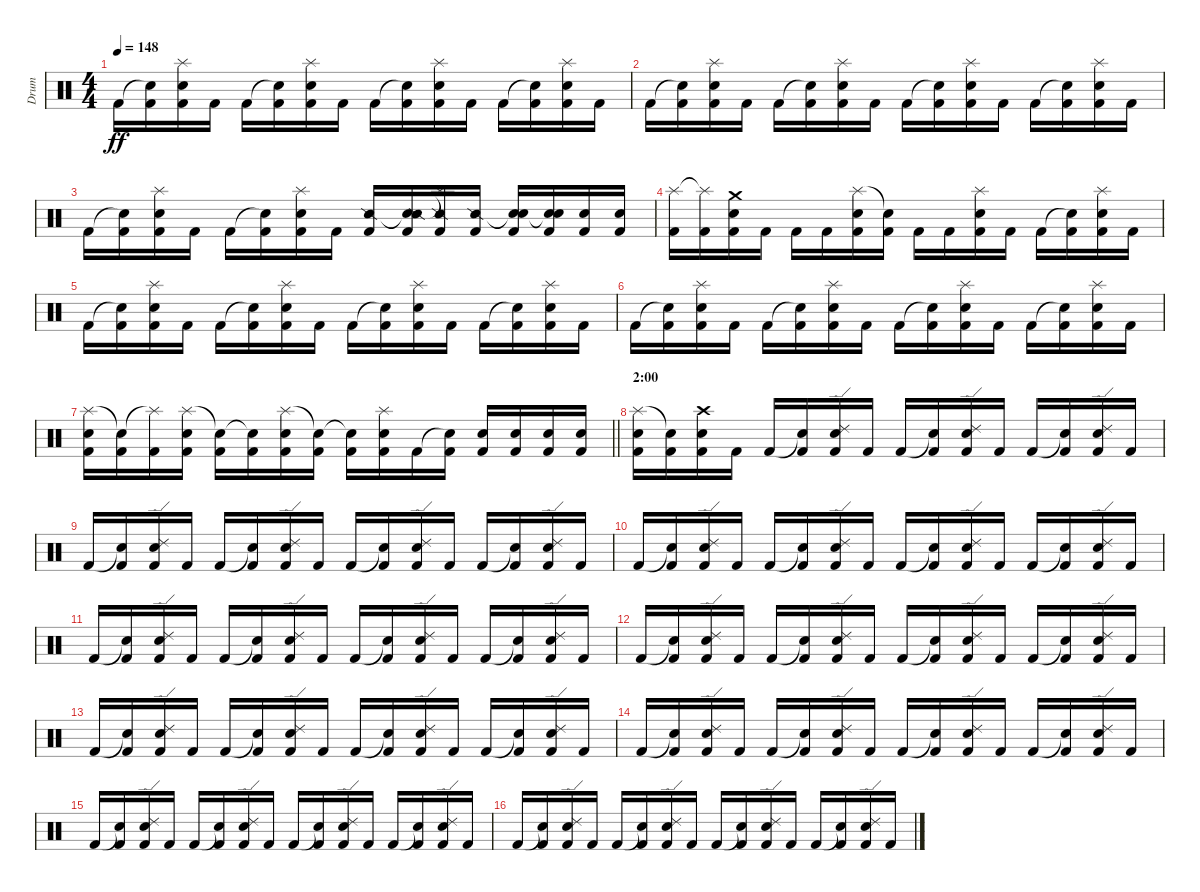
\track ("Drum" "Drum") {instrument percussion}
\staff {score}
\articulation defaults
\ts (4 4)
\tempo 148
\clef neutral
\ks c "Kick (hit) 2".16{dy ff}
("Snare (hit)"{t} "Kick (hit) 2").16 ("Splash (hit)" "Snare (hit) 2" "Kick (hit) 2").16 "Kick (hit) 2".16 "Kick (hit) 2".16 ("Snare (hit)"{t} "Kick (hit) 2").16 ("Splash (hit)" "Snare (hit) 2" "Kick (hit) 2").16 "Kick (hit) 2".16 "Kick (hit) 2".16 ("Snare (hit)"{t} "Kick (hit) 2").16 ("Splash (hit)" "Snare (hit) 2" "Kick (hit) 2").16 "Kick (hit) 2".16 "Kick (hit) 2".16 ("Snare (hit)"{t} "Kick (hit) 2").16 ("Splash (hit)" "Snare (hit) 2" "Kick (hit) 2").16 "Kick (hit) 2".16 |
"Kick (hit) 2".16 ("Snare (hit)"{t} "Kick (hit) 2").16 ("Splash (hit)" "Snare (hit) 2" "Kick (hit) 2").16 "Kick (hit) 2".16 "Kick (hit) 2".16 ("Snare (hit)"{t} "Kick (hit) 2").16 ("Splash (hit)" "Snare (hit) 2" "Kick (hit) 2").16 "Kick (hit) 2".16 "Kick (hit) 2".16 ("Snare (hit)"{t} "Kick (hit) 2").16 ("Splash (hit)" "Snare (hit) 2" "Kick (hit) 2").16 "Kick (hit) 2".16 "Kick (hit) 2".16 ("Snare (hit)"{t} "Kick (hit) 2").16 ("Splash (hit)" "Snare (hit) 2" "Kick (hit) 2").16 "Kick (hit) 2".16 |
"Kick (hit) 2".16 ("Snare (hit)"{t} "Kick (hit) 2").16 ("Splash (hit)" "Snare (hit) 2" "Kick (hit) 2").16 "Kick (hit) 2".16 "Kick (hit) 2".16 ("Snare (hit)"{t} "Kick (hit) 2").16 ("Splash (hit)" "Snare (hit) 2" "Kick (hit) 2").16 "Kick (hit) 2".16 ("Snare (side stick) 2" "Kick (hit) 2").16 ("Snare (hit)"{t} "Snare (side stick) 2" "Kick (hit) 2").16 ("Splash (hit)"{t} "Snare (side stick) 2" "Kick (hit) 2").16 ("Snare (side stick) 2" "Kick (hit) 2").16 ("Snare (hit)"{t} "Snare (hit) 2" "Kick (hit) 2").16 ("Snare (hit)"{t} "Snare (hit) 2" "Kick (hit) 2").16 ("Snare (hit) 2" "Kick (hit) 2").16 ("Snare (hit) 2" "Kick (hit) 2").16 |
("Splash (hit)" "Kick (hit) 2").16 ("Splash (hit)"{t} "Kick (hit) 2").16 ("Crash medium (hit)" "Snare (hit) 2" "Kick (hit) 2").16 "Kick (hit) 2".16 "Kick (hit) 2".16 "Kick (hit) 2".16 ("Splash (hit)" "Snare (hit) 2" "Kick (hit) 2").16 ("Snare (hit) 2"{t} "Kick (hit) 2").16 "Kick (hit) 2".16 "Kick (hit) 2".16 ("Splash (hit)" "Snare (hit) 2" "Kick (hit) 2").16 "Kick (hit) 2".16 "Kick (hit) 2".16 ("Snare (hit)"{t} "Kick (hit) 2").16 ("Splash (hit)" "Snare (hit) 2" "Kick (hit) 2").16 "Kick (hit) 2".16 |
"Kick (hit) 2".16 ("Snare (hit)"{t} "Kick (hit) 2").16 ("Splash (hit)" "Snare (hit) 2" "Kick (hit) 2").16 "Kick (hit) 2".16 "Kick (hit) 2".16 ("Snare (hit)"{t} "Kick (hit) 2").16 ("Splash (hit)" "Snare (hit) 2" "Kick (hit) 2").16 "Kick (hit) 2".16 "Kick (hit) 2".16 ("Snare (hit)"{t} "Kick (hit) 2").16 ("Splash (hit)" "Snare (hit) 2" "Kick (hit) 2").16 "Kick (hit) 2".16 "Kick (hit) 2".16 ("Snare (hit)"{t} "Kick (hit) 2").16 ("Splash (hit)" "Snare (hit) 2" "Kick (hit) 2").16 "Kick (hit) 2".16 |
"Kick (hit) 2".16 ("Snare (hit)"{t} "Kick (hit) 2").16 ("Splash (hit)" "Snare (hit) 2" "Kick (hit) 2").16 "Kick (hit) 2".16 "Kick (hit) 2".16 ("Snare (hit)"{t} "Kick (hit) 2").16 ("Splash (hit)" "Snare (hit) 2" "Kick (hit) 2").16 "Kick (hit) 2".16 "Kick (hit) 2".16 ("Snare (hit)"{t} "Kick (hit) 2").16 ("Splash (hit)" "Snare (hit) 2" "Kick (hit) 2").16 "Kick (hit) 2".16 "Kick (hit) 2".16 ("Snare (hit)"{t} "Kick (hit) 2").16 ("Splash (hit)" "Snare (hit) 2" "Kick (hit) 2").16 "Kick (hit) 2".16 |
\barLineRight lightlight
("Splash (hit)" "Snare (hit) 2" "Kick (hit) 2").16 ("Snare (hit)"{t} "Kick (hit) 2").16 ("Splash (hit)"{t} "Kick (hit) 2").16 ("Splash (hit)" "Snare (hit) 2" "Kick (hit) 2").16 ("Snare (hit)"{t} "Kick (hit) 2").16 ("Snare (hit)"{t} "Kick (hit) 2").16 ("Splash (hit)" "Snare (hit) 2" "Kick (hit) 2").16 ("Snare (hit)"{t} "Kick (hit) 2").16 ("Snare (hit)"{t} "Kick (hit) 2").16 ("Splash (hit)" "Snare (hit) 2" "Kick (hit) 2").16 "Kick (hit) 2".16 ("Snare (hit)"{t} "Kick (hit) 2").16 ("Snare (hit) 2" "Kick (hit) 2").16 ("Snare (hit) 2" "Kick (hit) 2").16 ("Snare (hit) 2" "Kick (hit) 2").16 ("Snare (hit) 2" "Kick (hit) 2").16 |
\section ("" "2:00")
("Splash (hit)" "Snare (hit) 2" "Kick (hit) 2").16 ("Snare (hit)"{t} "Kick (hit) 2").16 ("Crash high (hit)" "Snare (hit) 2" "Kick (hit) 2").16 "Kick (hit) 2".16 "Kick (hit) 2".16 ("Snare (hit)"{t} "Kick (hit) 2").16 ("Ride (edge) 2" "Snare (hit) 2" "Kick (hit) 2").16 "Kick (hit) 2".16 "Kick (hit) 2".16 ("Snare (hit)"{t} "Kick (hit) 2").16 ("Ride (edge) 2" "Snare (hit) 2" "Kick (hit) 2").16 "Kick (hit) 2".16 "Kick (hit) 2".16 ("Snare (hit)"{t} "Kick (hit) 2").16 ("Ride (edge) 2" "Snare (hit) 2" "Kick (hit) 2").16 "Kick (hit) 2".16 |
"Kick (hit) 2".16 ("Snare (hit)"{t} "Kick (hit) 2").16 ("Ride (edge) 2" "Snare (hit) 2" "Kick (hit) 2").16 "Kick (hit) 2".16 "Kick (hit) 2".16 ("Snare (hit)"{t} "Kick (hit) 2").16 ("Ride (edge) 2" "Snare (hit) 2" "Kick (hit) 2").16 "Kick (hit) 2".16 "Kick (hit) 2".16 ("Snare (hit)"{t} "Kick (hit) 2").16 ("Ride (edge) 2" "Snare (hit) 2" "Kick (hit) 2").16 "Kick (hit) 2".16 "Kick (hit) 2".16 ("Snare (hit)"{t} "Kick (hit) 2").16 ("Ride (edge) 2" "Snare (hit) 2" "Kick (hit) 2").16 "Kick (hit) 2".16 |
"Kick (hit) 2".16 ("Snare (hit)"{t} "Kick (hit) 2").16 ("Ride (edge) 2" "Snare (hit) 2" "Kick (hit) 2").16 "Kick (hit) 2".16 "Kick (hit) 2".16 ("Snare (hit)"{t} "Kick (hit) 2").16 ("Ride (edge) 2" "Snare (hit) 2" "Kick (hit) 2").16 "Kick (hit) 2".16 "Kick (hit) 2".16 ("Snare (hit)"{t} "Kick (hit) 2").16 ("Ride (edge) 2" "Snare (hit) 2" "Kick (hit) 2").16 "Kick (hit) 2".16 "Kick (hit) 2".16 ("Snare (hit)"{t} "Kick (hit) 2").16 ("Ride (edge) 2" "Snare (hit) 2" "Kick (hit) 2").16 "Kick (hit) 2".16 |
"Kick (hit) 2".16 ("Snare (hit)"{t} "Kick (hit) 2").16 ("Ride (edge) 2" "Snare (hit) 2" "Kick (hit) 2").16 "Kick (hit) 2".16 "Kick (hit) 2".16 ("Snare (hit)"{t} "Kick (hit) 2").16 ("Ride (edge) 2" "Snare (hit) 2" "Kick (hit) 2").16 "Kick (hit) 2".16 "Kick (hit) 2".16 ("Snare (hit)"{t} "Kick (hit) 2").16 ("Ride (edge) 2" "Snare (hit) 2" "Kick (hit) 2").16 "Kick (hit) 2".16 "Kick (hit) 2".16 ("Snare (hit)"{t} "Kick (hit) 2").16 ("Ride (edge) 2" "Snare (hit) 2" "Kick (hit) 2").16 "Kick (hit) 2".16 |
"Kick (hit) 2".16 ("Snare (hit)"{t} "Kick (hit) 2").16 ("Ride (edge) 2" "Snare (hit) 2" "Kick (hit) 2").16 "Kick (hit) 2".16 "Kick (hit) 2".16 ("Snare (hit)"{t} "Kick (hit) 2").16 ("Ride (edge) 2" "Snare (hit) 2" "Kick (hit) 2").16 "Kick (hit) 2".16 "Kick (hit) 2".16 ("Snare (hit)"{t} "Kick (hit) 2").16 ("Ride (edge) 2" "Snare (hit) 2" "Kick (hit) 2").16 "Kick (hit) 2".16 "Kick (hit) 2".16 ("Snare (hit)"{t} "Kick (hit) 2").16 ("Ride (edge) 2" "Snare (hit) 2" "Kick (hit) 2").16 "Kick (hit) 2".16 |
"Kick (hit) 2".16 ("Snare (hit)"{t} "Kick (hit) 2").16 ("Ride (edge) 2" "Snare (hit) 2" "Kick (hit) 2").16 "Kick (hit) 2".16 "Kick (hit) 2".16 ("Snare (hit)"{t} "Kick (hit) 2").16 ("Ride (edge) 2" "Snare (hit) 2" "Kick (hit) 2").16 "Kick (hit) 2".16 "Kick (hit) 2".16 ("Snare (hit)"{t} "Kick (hit) 2").16 ("Ride (edge) 2" "Snare (hit) 2" "Kick (hit) 2").16 "Kick (hit) 2".16 "Kick (hit) 2".16 ("Snare (hit)"{t} "Kick (hit) 2").16 ("Ride (edge) 2" "Snare (hit) 2" "Kick (hit) 2").16 "Kick (hit) 2".16 |
"Kick (hit) 2".16 ("Snare (hit)"{t} "Kick (hit) 2").16 ("Ride (edge) 2" "Snare (hit) 2" "Kick (hit) 2").16 "Kick (hit) 2".16 "Kick (hit) 2".16 ("Snare (hit)"{t} "Kick (hit) 2").16 ("Ride (edge) 2" "Snare (hit) 2" "Kick (hit) 2").16 "Kick (hit) 2".16 "Kick (hit) 2".16 ("Snare (hit)"{t} "Kick (hit) 2").16 ("Ride (edge) 2" "Snare (hit) 2" "Kick (hit) 2").16 "Kick (hit) 2".16 "Kick (hit) 2".16 ("Snare (hit)"{t} "Kick (hit) 2").16 ("Ride (edge) 2" "Snare (hit) 2" "Kick (hit) 2").16 "Kick (hit) 2".16 |
"Kick (hit) 2".16 ("Snare (hit)"{t} "Kick (hit) 2").16 ("Ride (edge) 2" "Snare (hit) 2" "Kick (hit) 2").16 "Kick (hit) 2".16 "Kick (hit) 2".16 ("Snare (hit)"{t} "Kick (hit) 2").16 ("Ride (edge) 2" "Snare (hit) 2" "Kick (hit) 2").16 "Kick (hit) 2".16 "Kick (hit) 2".16 ("Snare (hit)"{t} "Kick (hit) 2").16 ("Ride (edge) 2" "Snare (hit) 2" "Kick (hit) 2").16 "Kick (hit) 2".16 "Kick (hit) 2".16 ("Snare (hit)"{t} "Kick (hit) 2").16 ("Ride (edge) 2" "Snare (hit) 2" "Kick (hit) 2").16 "Kick (hit) 2".16 |
"Kick (hit) 2".16 ("Snare (hit)"{t} "Kick (hit) 2").16 ("Ride (edge) 2" "Snare (hit) 2" "Kick (hit) 2").16 "Kick (hit) 2".16 "Kick (hit) 2".16 ("Snare (hit)"{t} "Kick (hit) 2").16 ("Ride (edge) 2" "Snare (hit) 2" "Kick (hit) 2").16 "Kick (hit) 2".16 "Kick (hit) 2".16 ("Snare (hit)"{t} "Kick (hit) 2").16 ("Ride (edge) 2" "Snare (hit) 2" "Kick (hit) 2").16 "Kick (hit) 2".16 "Kick (hit) 2".16 ("Snare (hit)"{t} "Kick (hit) 2").16 ("Ride (edge) 2" "Snare (hit) 2" "Kick (hit) 2").16 "Kick (hit) 2".16
